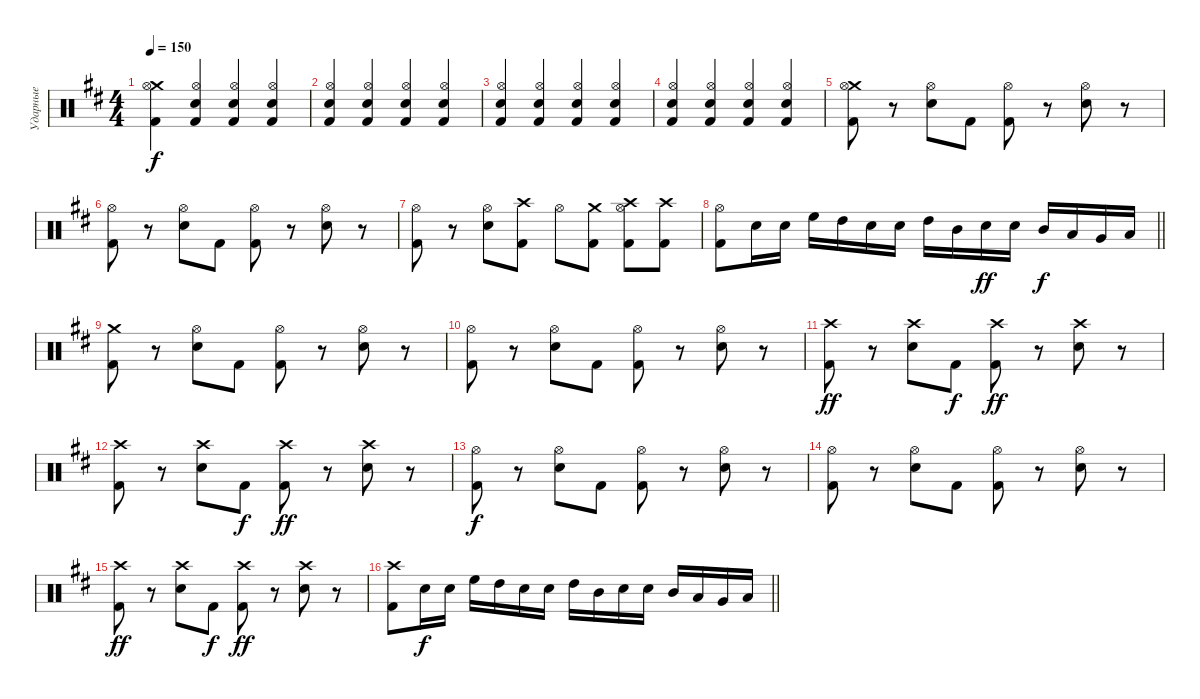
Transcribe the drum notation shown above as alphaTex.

\track ("Ударные" "Ударные") {instrument percussion}
\staff {score}
\articulation defaults
\ts (4 4)
\tempo 150
\clef neutral
\ks bminor
("Crash medium (hit)" "Kick (hit) 2" "Hi-Hat (open)").4{dy f} ("Electric Snare (hit)" "Hi-Hat (open)" "Kick (hit) 2").4 ("Electric Snare (hit)" "Hi-Hat (open)" "Kick (hit) 2").4 ("Electric Snare (hit)" "Hi-Hat (open)" "Kick (hit) 2").4 |
("Electric Snare (hit)" "Hi-Hat (open)" "Kick (hit) 2").4 ("Electric Snare (hit)" "Hi-Hat (open)" "Kick (hit) 2").4 ("Electric Snare (hit)" "Hi-Hat (open)" "Kick (hit) 2").4 ("Electric Snare (hit)" "Hi-Hat (open)" "Kick (hit) 2").4 |
("Electric Snare (hit)" "Hi-Hat (open)" "Kick (hit) 2").4 ("Electric Snare (hit)" "Hi-Hat (open)" "Kick (hit) 2").4 ("Electric Snare (hit)" "Hi-Hat (open)" "Kick (hit) 2").4 ("Electric Snare (hit)" "Hi-Hat (open)" "Kick (hit) 2").4 |
("Electric Snare (hit)" "Hi-Hat (open)" "Kick (hit) 2").4 ("Electric Snare (hit)" "Hi-Hat (open)" "Kick (hit) 2").4 ("Electric Snare (hit)" "Hi-Hat (open)" "Kick (hit) 2").4 ("Electric Snare (hit)" "Hi-Hat (open)" "Kick (hit) 2").4 |
("Crash medium (hit)" "Kick (hit) 2" "Hi-Hat (open)").8 r.8 ("Electric Snare (hit)" "Hi-Hat (open)").8 "Kick (hit) 2".8 ("Kick (hit) 2" "Hi-Hat (open)").8 r.8 ("Electric Snare (hit)" "Hi-Hat (open)").8 r.8 |
("Kick (hit) 2" "Hi-Hat (open)").8 r.8 ("Electric Snare (hit)" "Hi-Hat (open)").8 "Kick (hit) 2".8 ("Kick (hit) 2" "Hi-Hat (open)").8 r.8 ("Electric Snare (hit)" "Hi-Hat (open)").8 r.8 |
("Kick (hit) 2" "Hi-Hat (open)").8 r.8 ("Electric Snare (hit)" "Hi-Hat (open)").8 ("Crash high (hit)" "Kick (hit) 2").8 "Hi-Hat (open)".8 ("Crash medium (hit)" "Kick (hit) 2").8 ("Crash high (hit)" "Kick (hit) 2" "Hi-Hat (open)").8 ("Crash high (hit)" "Kick (hit) 2").8 |
\barLineRight lightlight
("Hi-Hat (open)" "Kick (hit) 2").8 "Electric Snare (hit)".16 "Electric Snare (hit)".16 "High Floor Tom (hit)".16 "High Tom (hit)".16 "Electric Snare (hit)".16 "Electric Snare (hit)".16 "High Tom (hit)".16 "Mid Tom (hit)".16 "Electric Snare (hit)".16{dy ff} "Electric Snare (hit)".16 "Mid Tom (hit)".16{dy f} "Low Tom (hit)".16 "Very Low Tom (hit)".16 "Low Floor Tom (hit)".16 |
("Crash medium (hit)" "Kick (hit) 2").8 r.8 ("Electric Snare (hit)" "Hi-Hat (open)").8 "Kick (hit) 2".8 ("Kick (hit) 2" "Hi-Hat (open)").8 r.8 ("Electric Snare (hit)" "Hi-Hat (open)").8 r.8 |
("Kick (hit) 2" "Hi-Hat (open)").8 r.8 ("Electric Snare (hit)" "Hi-Hat (open)").8 "Kick (hit) 2".8 ("Kick (hit) 2" "Hi-Hat (open)").8 r.8 ("Electric Snare (hit)" "Hi-Hat (open)").8 r.8 |
("Crash high (hit)" "Kick (hit) 2").8{dy ff} r.8 ("Crash high (hit)" "Electric Snare (hit)").8 "Kick (hit) 2".8{dy f} ("Crash high (hit)" "Kick (hit) 2").8{dy ff} r.8 ("Crash high (hit)" "Electric Snare (hit)").8 r.8 |
("Crash high (hit)" "Kick (hit) 2").8 r.8 ("Crash high (hit)" "Electric Snare (hit)").8 "Kick (hit) 2".8{dy f} ("Crash high (hit)" "Kick (hit) 2").8{dy ff} r.8 ("Crash high (hit)" "Electric Snare (hit)").8 r.8 |
("Kick (hit) 2" "Hi-Hat (open)").8{dy f} r.8 ("Electric Snare (hit)" "Hi-Hat (open)").8 "Kick (hit) 2".8 ("Kick (hit) 2" "Hi-Hat (open)").8 r.8 ("Electric Snare (hit)" "Hi-Hat (open)").8 r.8 |
("Kick (hit) 2" "Hi-Hat (open)").8 r.8 ("Electric Snare (hit)" "Hi-Hat (open)").8 "Kick (hit) 2".8 ("Kick (hit) 2" "Hi-Hat (open)").8 r.8 ("Electric Snare (hit)" "Hi-Hat (open)").8 r.8 |
("Crash high (hit)" "Kick (hit) 2").8{dy ff} r.8 ("Crash high (hit)" "Electric Snare (hit)").8 "Kick (hit) 2".8{dy f} ("Crash high (hit)" "Kick (hit) 2").8{dy ff} r.8 ("Crash high (hit)" "Electric Snare (hit)").8 r.8 |
\barLineRight lightlight
("Crash high (hit)" "Kick (hit) 2").8 "Electric Snare (hit)".16{dy f} "Electric Snare (hit)".16 "High Floor Tom (hit)".16 "High Tom (hit)".16 "Electric Snare (hit)".16 "Electric Snare (hit)".16 "High Tom (hit)".16 "Mid Tom (hit)".16 "Electric Snare (hit)".16 "Electric Snare (hit)".16 "Mid Tom (hit)".16 "Low Tom (hit)".16 "Very Low Tom (hit)".16 "Low Floor Tom (hit)".16
